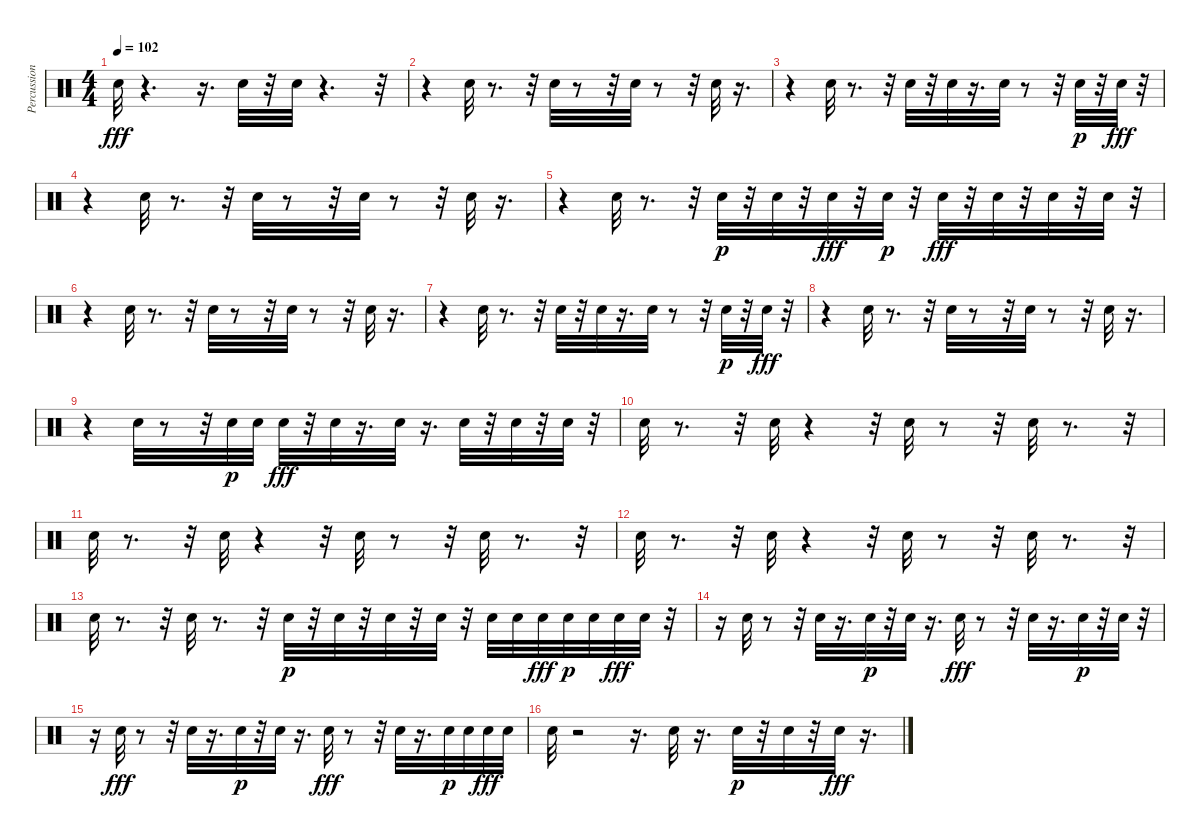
\track ("Percussion" "Percussion") {instrument percussion}
\staff {score}
\articulation defaults
\ts (4 4)
\tempo 102
\clef neutral
\ks c "Snare (hit) 2".32{dy fff}
r.4{d} r.16{d} "Snare (hit) 2".32 r.32 "Snare (hit) 2".32 r.4{d} r.32 |
r.4 "Snare (hit) 2".32 r.8{d} r.32 "Snare (hit) 2".32 r.8 r.32 "Snare (hit) 2".32 r.8 r.32 "Snare (hit) 2".32 r.16{d} |
r.4 "Snare (hit) 2".32 r.8{d} r.32 "Snare (hit) 2".32 r.32 "Snare (hit) 2".32 r.16{d} "Snare (hit) 2".32 r.8 r.32 "Snare (hit) 2".32{dy p} r.32 "Snare (hit) 2".32{dy fff} r.32 |
r.4 "Snare (hit) 2".32 r.8{d} r.32 "Snare (hit) 2".32 r.8 r.32 "Snare (hit) 2".32 r.8 r.32 "Snare (hit) 2".32 r.16{d} |
r.4 "Snare (hit) 2".32 r.8{d} r.32 "Snare (hit) 2".32{dy p} r.32 "Snare (hit) 2".32 r.32 "Snare (hit) 2".32{dy fff} r.32 "Snare (hit) 2".32{dy p} r.32 "Snare (hit) 2".32{dy fff} r.32 "Snare (hit) 2".32 r.32 "Snare (hit) 2".32 r.32 "Snare (hit) 2".32 r.32 |
r.4 "Snare (hit) 2".32 r.8{d} r.32 "Snare (hit) 2".32 r.8 r.32 "Snare (hit) 2".32 r.8 r.32 "Snare (hit) 2".32 r.16{d} |
r.4 "Snare (hit) 2".32 r.8{d} r.32 "Snare (hit) 2".32 r.32 "Snare (hit) 2".32 r.16{d} "Snare (hit) 2".32 r.8 r.32 "Snare (hit) 2".32{dy p} r.32 "Snare (hit) 2".32{dy fff} r.32 |
r.4 "Snare (hit) 2".32 r.8{d} r.32 "Snare (hit) 2".32 r.8 r.32 "Snare (hit) 2".32 r.8 r.32 "Snare (hit) 2".32 r.16{d} |
r.4 "Snare (hit) 2".32 r.8 r.32 "Snare (hit) 2".32{dy p} "Snare (hit) 2".32 "Snare (hit) 2".32{dy fff} r.32 "Snare (hit) 2".32 r.16{d} "Snare (hit) 2".32 r.16{d} "Snare (hit) 2".32 r.32 "Snare (hit) 2".32 r.32 "Snare (hit) 2".32 r.32 |
"Snare (hit) 2".32 r.8{d} r.32 "Snare (hit) 2".32 r.4 r.32 "Snare (hit) 2".32 r.8 r.32 "Snare (hit) 2".32 r.8{d} r.32 |
"Snare (hit) 2".32 r.8{d} r.32 "Snare (hit) 2".32 r.4 r.32 "Snare (hit) 2".32 r.8 r.32 "Snare (hit) 2".32 r.8{d} r.32 |
"Snare (hit) 2".32 r.8{d} r.32 "Snare (hit) 2".32 r.4 r.32 "Snare (hit) 2".32 r.8 r.32 "Snare (hit) 2".32 r.8{d} r.32 |
"Snare (hit) 2".32 r.8{d} r.32 "Snare (hit) 2".32 r.8{d} r.32 "Snare (hit) 2".32{dy p} r.32 "Snare (hit) 2".32 r.32 "Snare (hit) 2".32 r.32 "Snare (hit) 2".32 r.32 "Snare (hit) 2".32 "Snare (hit) 2".32 "Snare (hit) 2".32{dy fff} "Snare (hit) 2".32{dy p} "Snare (hit) 2".32 "Snare (hit) 2".32{dy fff} "Snare (hit) 2".32 r.32 |
r.16 "Snare (hit) 2".32 r.8 r.32 "Snare (hit) 2".32 r.16{d} "Snare (hit) 2".32{dy p} r.32 "Snare (hit) 2".32 r.16{d} "Snare (hit) 2".32{dy fff} r.8 r.32 "Snare (hit) 2".32 r.16{d} "Snare (hit) 2".32{dy p} r.32 "Snare (hit) 2".32 r.32 |
r.16 "Snare (hit) 2".32{dy fff} r.8 r.32 "Snare (hit) 2".32 r.16{d} "Snare (hit) 2".32{dy p} r.32 "Snare (hit) 2".32 r.16{d} "Snare (hit) 2".32{dy fff} r.8 r.32 "Snare (hit) 2".32 r.16{d} "Snare (hit) 2".32{dy p} "Snare (hit) 2".32 "Snare (hit) 2".32{dy fff} "Snare (hit) 2".32 |
"Snare (hit) 2".32 r.2 r.16{d} "Snare (hit) 2".32 r.16{d} "Snare (hit) 2".32{dy p} r.32 "Snare (hit) 2".32 r.32 "Snare (hit) 2".32{dy fff} r.16{d}
